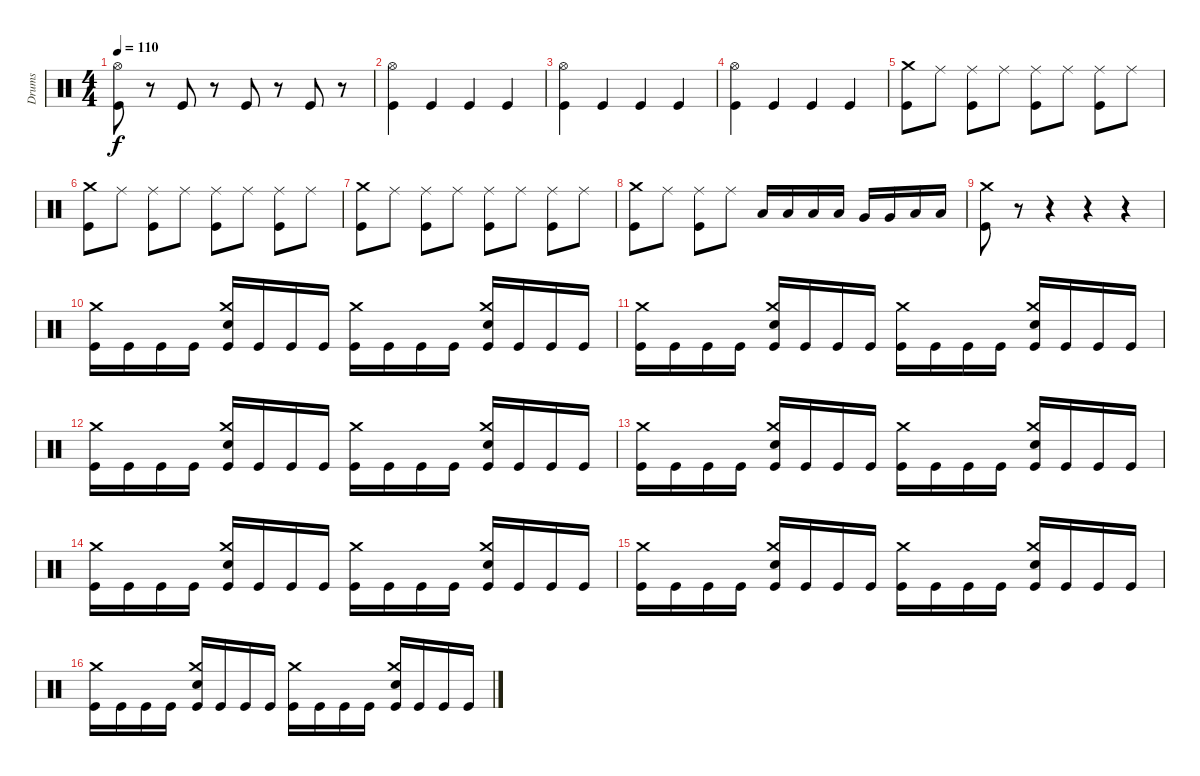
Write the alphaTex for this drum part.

\track ("Drums" "Drums") {instrument percussion}
\staff {score}
\articulation defaults
\ts (4 4)
\tempo 110
\clef neutral
\ks c
("Hi-Hat (open)" "Kick (hit)").8{dy f} r.8 "Kick (hit)".8 r.8 "Kick (hit)".8 r.8 "Kick (hit)".8 r.8 |
("Hi-Hat (open)" "Kick (hit)").4 "Kick (hit)".4 "Kick (hit)".4 "Kick (hit)".4 |
("Hi-Hat (open)" "Kick (hit)").4 "Kick (hit)".4 "Kick (hit)".4 "Kick (hit)".4 |
("Hi-Hat (open)" "Kick (hit)").4 "Kick (hit)".4 "Kick (hit)".4 "Kick (hit)".4 |
("Crash medium (hit)" "Kick (hit)").8 "Ride (middle)".8 ("Ride (middle)" "Kick (hit)").8 "Ride (middle)".8 ("Ride (middle)" "Kick (hit)").8 "Ride (middle)".8 ("Ride (middle)" "Kick (hit)").8 "Ride (middle)".8 |
("Crash medium (hit)" "Kick (hit)").8 "Ride (middle)".8 ("Ride (middle)" "Kick (hit)").8 "Ride (middle)".8 ("Ride (middle)" "Kick (hit)").8 "Ride (middle)".8 ("Ride (middle)" "Kick (hit)").8 "Ride (middle)".8 |
("Crash medium (hit)" "Kick (hit)").8 "Ride (middle)".8 ("Ride (middle)" "Kick (hit)").8 "Ride (middle)".8 ("Ride (middle)" "Kick (hit)").8 "Ride (middle)".8 ("Ride (middle)" "Kick (hit)").8 "Ride (middle)".8 |
("Crash medium (hit)" "Kick (hit)").8 "Ride (middle)".8 ("Ride (middle)" "Kick (hit)").8 "Ride (middle)".8 "Low Tom (hit)".16 "Low Tom (hit)".16 "Low Tom (hit)".16 "Low Tom (hit)".16 "Very Low Tom (hit)".16 "Very Low Tom (hit)".16 "Low Floor Tom (hit)".16 "Low Floor Tom (hit)".16 |
("Crash medium (hit)" "Kick (hit)").8 r.8 r.4 r.4 r.4 |
("Crash medium (hit)" "Kick (hit)").16 "Kick (hit)".16 "Kick (hit)".16 "Kick (hit)".16 ("Crash medium (hit)" "Electric Snare (hit)" "Kick (hit)").16 "Kick (hit)".16 "Kick (hit)".16 "Kick (hit)".16 ("Crash medium (hit)" "Kick (hit)").16 "Kick (hit)".16 "Kick (hit)".16 "Kick (hit)".16 ("Crash medium (hit)" "Electric Snare (hit)" "Kick (hit)").16 "Kick (hit)".16 "Kick (hit)".16 "Kick (hit)".16 |
("Crash medium (hit)" "Kick (hit)").16 "Kick (hit)".16 "Kick (hit)".16 "Kick (hit)".16 ("Crash medium (hit)" "Electric Snare (hit)" "Kick (hit)").16 "Kick (hit)".16 "Kick (hit)".16 "Kick (hit)".16 ("Crash medium (hit)" "Kick (hit)").16 "Kick (hit)".16 "Kick (hit)".16 "Kick (hit)".16 ("Crash medium (hit)" "Electric Snare (hit)" "Kick (hit)").16 "Kick (hit)".16 "Kick (hit)".16 "Kick (hit)".16 |
("Crash medium (hit)" "Kick (hit)").16 "Kick (hit)".16 "Kick (hit)".16 "Kick (hit)".16 ("Crash medium (hit)" "Electric Snare (hit)" "Kick (hit)").16 "Kick (hit)".16 "Kick (hit)".16 "Kick (hit)".16 ("Crash medium (hit)" "Kick (hit)").16 "Kick (hit)".16 "Kick (hit)".16 "Kick (hit)".16 ("Crash medium (hit)" "Electric Snare (hit)" "Kick (hit)").16 "Kick (hit)".16 "Kick (hit)".16 "Kick (hit)".16 |
("Crash medium (hit)" "Kick (hit)").16 "Kick (hit)".16 "Kick (hit)".16 "Kick (hit)".16 ("Crash medium (hit)" "Electric Snare (hit)" "Kick (hit)").16 "Kick (hit)".16 "Kick (hit)".16 "Kick (hit)".16 ("Crash medium (hit)" "Kick (hit)").16 "Kick (hit)".16 "Kick (hit)".16 "Kick (hit)".16 ("Crash medium (hit)" "Electric Snare (hit)" "Kick (hit)").16 "Kick (hit)".16 "Kick (hit)".16 "Kick (hit)".16 |
("Crash medium (hit)" "Kick (hit)").16 "Kick (hit)".16 "Kick (hit)".16 "Kick (hit)".16 ("Crash medium (hit)" "Electric Snare (hit)" "Kick (hit)").16 "Kick (hit)".16 "Kick (hit)".16 "Kick (hit)".16 ("Crash medium (hit)" "Kick (hit)").16 "Kick (hit)".16 "Kick (hit)".16 "Kick (hit)".16 ("Crash medium (hit)" "Electric Snare (hit)" "Kick (hit)").16 "Kick (hit)".16 "Kick (hit)".16 "Kick (hit)".16 |
("Crash medium (hit)" "Kick (hit)").16 "Kick (hit)".16 "Kick (hit)".16 "Kick (hit)".16 ("Crash medium (hit)" "Electric Snare (hit)" "Kick (hit)").16 "Kick (hit)".16 "Kick (hit)".16 "Kick (hit)".16 ("Crash medium (hit)" "Kick (hit)").16 "Kick (hit)".16 "Kick (hit)".16 "Kick (hit)".16 ("Crash medium (hit)" "Electric Snare (hit)" "Kick (hit)").16 "Kick (hit)".16 "Kick (hit)".16 "Kick (hit)".16 |
("Crash medium (hit)" "Kick (hit)").16 "Kick (hit)".16 "Kick (hit)".16 "Kick (hit)".16 ("Crash medium (hit)" "Electric Snare (hit)" "Kick (hit)").16 "Kick (hit)".16 "Kick (hit)".16 "Kick (hit)".16 ("Crash medium (hit)" "Kick (hit)").16 "Kick (hit)".16 "Kick (hit)".16 "Kick (hit)".16 ("Crash medium (hit)" "Electric Snare (hit)" "Kick (hit)").16 "Kick (hit)".16 "Kick (hit)".16 "Kick (hit)".16
